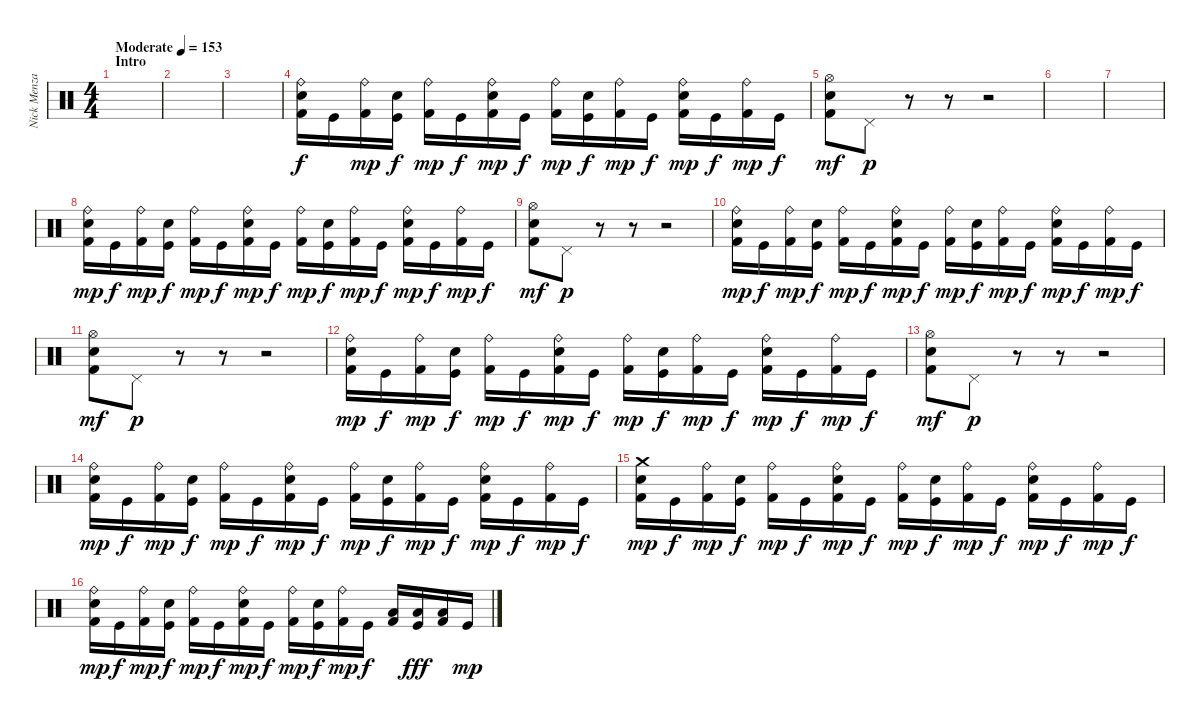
\track ("Nick Menza" "Nick Menza") {instrument percussion}
\staff {score}
\articulation defaults
\ts (4 4)
\section ("" "Intro")
\tempo (153 "Moderate")
\clef neutral
\ks c
|
|
|
("Ride (bell)" "Electric Snare (hit)" "Kick (hit) 2").16 "Kick (hit)".16{dy f} ("Ride (bell)" "Kick (hit) 2").16{dy mp} ("Electric Snare (hit)" "Kick (hit)").16{dy f} ("Ride (bell)" "Kick (hit) 2").16{dy mp} "Kick (hit)".16{dy f} ("Ride (bell)" "Electric Snare (hit)" "Kick (hit) 2").16{dy mp} "Kick (hit)".16{dy f} ("Ride (bell)" "Kick (hit) 2").16{dy mp} ("Electric Snare (hit)" "Kick (hit)").16{dy f} ("Ride (bell)" "Kick (hit) 2").16{dy mp} "Kick (hit)".16{dy f} ("Ride (bell)" "Electric Snare (hit)" "Kick (hit) 2").16{dy mp} "Kick (hit)".16{dy f} ("Ride (bell)" "Kick (hit) 2").16{dy mp} "Kick (hit)".16{dy f} |
("Hi-Hat (open)" "Electric Snare (hit)" "Kick (hit) 2").8{dy mf} "Pedal Hi-Hat (hit)".8{dy p} r.8 r.8 r.2 |
|
|
("Ride (bell)" "Electric Snare (hit)" "Kick (hit) 2").16{dy mp} "Kick (hit)".16{dy f} ("Ride (bell)" "Kick (hit) 2").16{dy mp} ("Electric Snare (hit)" "Kick (hit)").16{dy f} ("Ride (bell)" "Kick (hit) 2").16{dy mp} "Kick (hit)".16{dy f} ("Ride (bell)" "Electric Snare (hit)" "Kick (hit) 2").16{dy mp} "Kick (hit)".16{dy f} ("Ride (bell)" "Kick (hit) 2").16{dy mp} ("Electric Snare (hit)" "Kick (hit)").16{dy f} ("Ride (bell)" "Kick (hit) 2").16{dy mp} "Kick (hit)".16{dy f} ("Ride (bell)" "Electric Snare (hit)" "Kick (hit) 2").16{dy mp} "Kick (hit)".16{dy f} ("Ride (bell)" "Kick (hit) 2").16{dy mp} "Kick (hit)".16{dy f} |
("Hi-Hat (open)" "Electric Snare (hit)" "Kick (hit) 2").8{dy mf} "Pedal Hi-Hat (hit)".8{dy p} r.8 r.8 r.2 |
("Ride (bell)" "Electric Snare (hit)" "Kick (hit) 2").16{dy mp} "Kick (hit)".16{dy f} ("Ride (bell)" "Kick (hit) 2").16{dy mp} ("Electric Snare (hit)" "Kick (hit)").16{dy f} ("Ride (bell)" "Kick (hit) 2").16{dy mp} "Kick (hit)".16{dy f} ("Ride (bell)" "Electric Snare (hit)" "Kick (hit) 2").16{dy mp} "Kick (hit)".16{dy f} ("Ride (bell)" "Kick (hit) 2").16{dy mp} ("Electric Snare (hit)" "Kick (hit)").16{dy f} ("Ride (bell)" "Kick (hit) 2").16{dy mp} "Kick (hit)".16{dy f} ("Ride (bell)" "Electric Snare (hit)" "Kick (hit) 2").16{dy mp} "Kick (hit)".16{dy f} ("Ride (bell)" "Kick (hit) 2").16{dy mp} "Kick (hit)".16{dy f} |
("Hi-Hat (open)" "Electric Snare (hit)" "Kick (hit) 2").8{dy mf} "Pedal Hi-Hat (hit)".8{dy p} r.8 r.8 r.2 |
("Ride (bell)" "Electric Snare (hit)" "Kick (hit) 2").16{dy mp} "Kick (hit)".16{dy f} ("Ride (bell)" "Kick (hit) 2").16{dy mp} ("Electric Snare (hit)" "Kick (hit)").16{dy f} ("Ride (bell)" "Kick (hit) 2").16{dy mp} "Kick (hit)".16{dy f} ("Ride (bell)" "Electric Snare (hit)" "Kick (hit) 2").16{dy mp} "Kick (hit)".16{dy f} ("Ride (bell)" "Kick (hit) 2").16{dy mp} ("Electric Snare (hit)" "Kick (hit)").16{dy f} ("Ride (bell)" "Kick (hit) 2").16{dy mp} "Kick (hit)".16{dy f} ("Ride (bell)" "Electric Snare (hit)" "Kick (hit) 2").16{dy mp} "Kick (hit)".16{dy f} ("Ride (bell)" "Kick (hit) 2").16{dy mp} "Kick (hit)".16{dy f} |
("Hi-Hat (open)" "Electric Snare (hit)" "Kick (hit) 2").8{dy mf} "Pedal Hi-Hat (hit)".8{dy p} r.8 r.8 r.2 |
("Ride (bell)" "Electric Snare (hit)" "Kick (hit) 2").16{dy mp} "Kick (hit)".16{dy f} ("Ride (bell)" "Kick (hit) 2").16{dy mp} ("Electric Snare (hit)" "Kick (hit)").16{dy f} ("Ride (bell)" "Kick (hit) 2").16{dy mp} "Kick (hit)".16{dy f} ("Ride (bell)" "Electric Snare (hit)" "Kick (hit) 2").16{dy mp} "Kick (hit)".16{dy f} ("Ride (bell)" "Kick (hit) 2").16{dy mp} ("Electric Snare (hit)" "Kick (hit)").16{dy f} ("Ride (bell)" "Kick (hit) 2").16{dy mp} "Kick (hit)".16{dy f} ("Ride (bell)" "Electric Snare (hit)" "Kick (hit) 2").16{dy mp} "Kick (hit)".16{dy f} ("Ride (bell)" "Kick (hit) 2").16{dy mp} "Kick (hit)".16{dy f} |
("Crash medium (hit)" "Electric Snare (hit)" "Kick (hit) 2").16{dy mp} "Kick (hit)".16{dy f} ("Ride (bell)" "Kick (hit) 2").16{dy mp} ("Electric Snare (hit)" "Kick (hit)").16{dy f} ("Ride (bell)" "Kick (hit) 2").16{dy mp} "Kick (hit)".16{dy f} ("Ride (bell)" "Electric Snare (hit)" "Kick (hit) 2").16{dy mp} "Kick (hit)".16{dy f} ("Ride (bell)" "Kick (hit) 2").16{dy mp} ("Electric Snare (hit)" "Kick (hit)").16{dy f} ("Ride (bell)" "Kick (hit) 2").16{dy mp} "Kick (hit)".16{dy f} ("Ride (bell)" "Electric Snare (hit)" "Kick (hit) 2").16{dy mp} "Kick (hit)".16{dy f} ("Ride (bell)" "Kick (hit) 2").16{dy mp} "Kick (hit)".16{dy f} |
("Ride (bell)" "Electric Snare (hit)" "Kick (hit) 2").16{dy mp} "Kick (hit)".16{dy f} ("Ride (bell)" "Kick (hit) 2").16{dy mp} ("Electric Snare (hit)" "Kick (hit)").16{dy f} ("Ride (bell)" "Kick (hit) 2").16{dy mp} "Kick (hit)".16{dy f} ("Ride (bell)" "Electric Snare (hit)" "Kick (hit) 2").16{dy mp} "Kick (hit)".16{dy f} ("Ride (bell)" "Kick (hit) 2").16{dy mp} ("Electric Snare (hit)" "Kick (hit)").16{dy f} ("Ride (bell)" "Kick (hit) 2").16{dy mp} "Kick (hit)".16{dy f} ("Low Tom (hit)" "Kick (hit) 2").16 ("Low Tom (hit)" "Kick (hit)").16{dy fff} ("Low Tom (hit)" "Kick (hit) 2").16 "Kick (hit)".16{dy mp}
